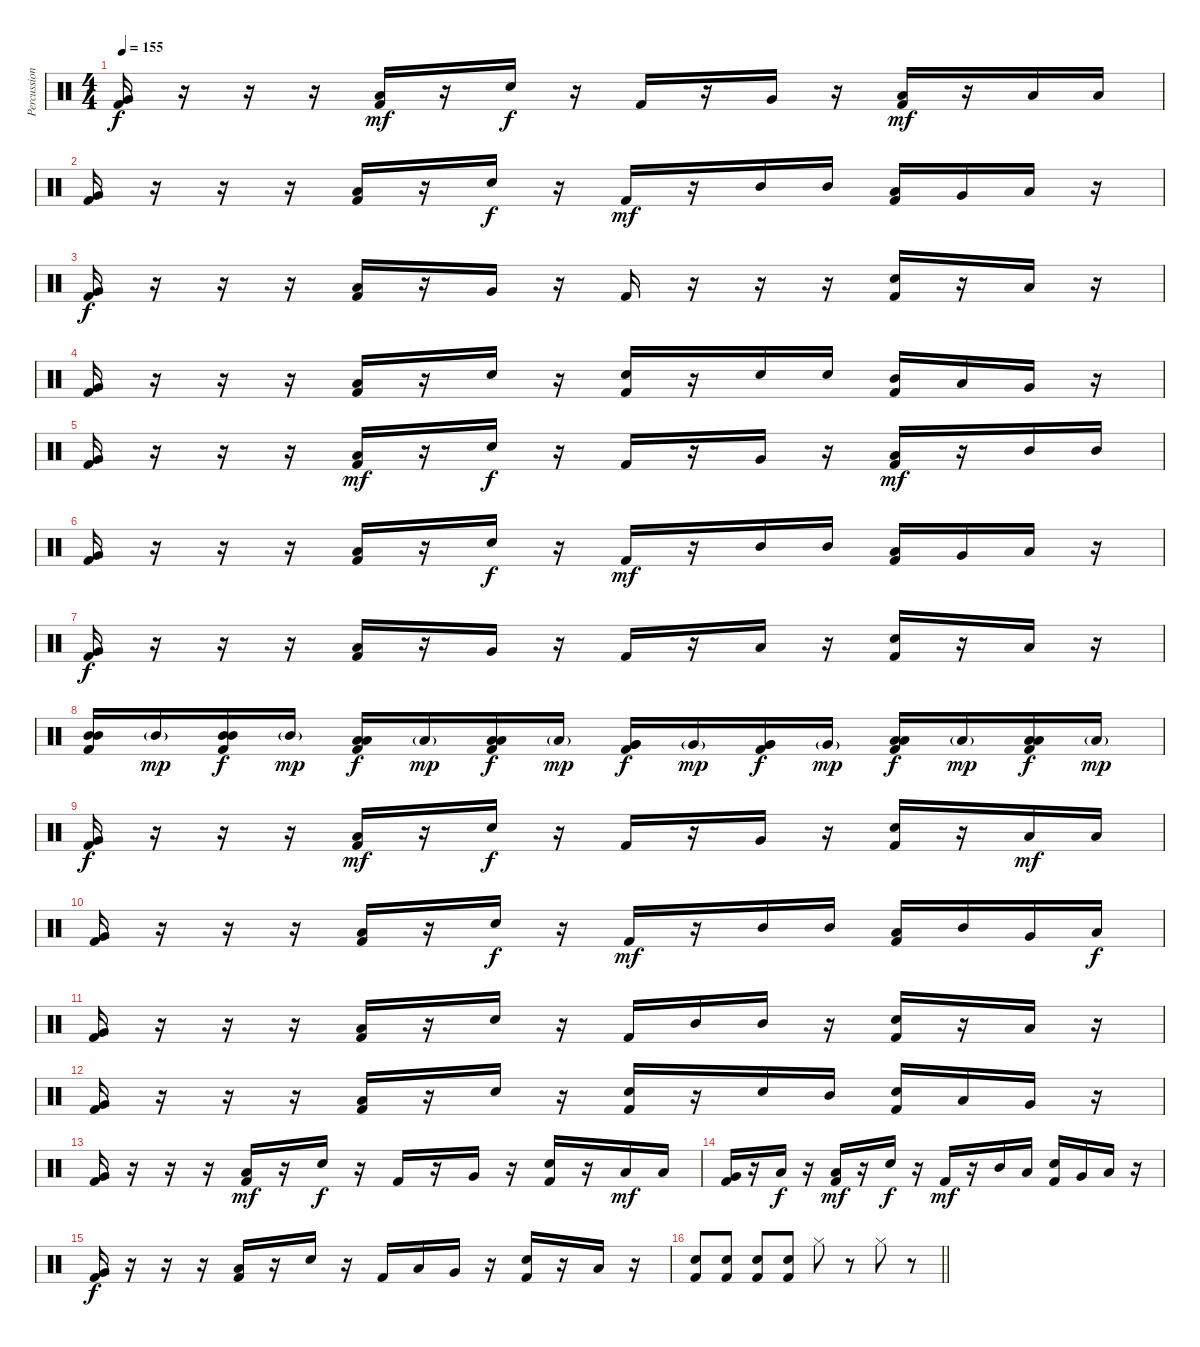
\track ("Percussion (Mike Oliver)" "Percussion") {instrument percussion}
\staff {score}
\articulation defaults
\ts (4 4)
\tempo 155
\clef neutral
\ks c
("Very Low Tom (hit)" "Kick (hit) 2").16{dy f} r.16 r.16 r.16 ("Low Tom (hit)" "Kick (hit) 2").16{dy mf} r.16 "Snare (hit) 2".16{dy f} r.16 "Kick (hit) 2".16 r.16 "Very Low Tom (hit)".16 r.16 ("Low Tom (hit)" "Kick (hit) 2").16{dy mf} r.16 "Low Tom (hit)".16 "Low Tom (hit)".16 |
("Very Low Tom (hit)" "Kick (hit) 2").16 r.16 r.16 r.16 ("Low Tom (hit)" "Kick (hit) 2").16 r.16 "Snare (hit) 2".16{dy f} r.16 "Kick (hit) 2".16{dy mf} r.16 "Mid Tom (hit)".16 "Mid Tom (hit)".16 ("Low Tom (hit)" "Kick (hit) 2").16 "Very Low Tom (hit)".16 "Low Floor Tom (hit)".16 r.16 |
("Very Low Tom (hit)" "Kick (hit) 2").16{dy f} r.16 r.16 r.16 ("Low Tom (hit)" "Kick (hit) 2").16 r.16 "Very Low Tom (hit)".16 r.16 "Kick (hit) 2".16 r.16 r.16 r.16 ("Snare (hit) 2" "Kick (hit) 2").16 r.16 "Low Floor Tom (hit)".16 r.16 |
("Very Low Tom (hit)" "Kick (hit) 2").16 r.16 r.16 r.16 ("Low Tom (hit)" "Kick (hit) 2").16 r.16 "Snare (hit) 2".16 r.16 ("Snare (hit) 2" "Kick (hit) 2").16 r.16 "Snare (hit) 2".16 "Snare (hit) 2".16 ("Mid Tom (hit)" "Kick (hit) 2").16 "Low Tom (hit)".16 "Very Low Tom (hit)".16 r.16 |
("Very Low Tom (hit)" "Kick (hit) 2").16 r.16 r.16 r.16 ("Low Tom (hit)" "Kick (hit) 2").16{dy mf} r.16 "Snare (hit) 2".16{dy f} r.16 "Kick (hit) 2".16 r.16 "Very Low Tom (hit)".16 r.16 ("Low Tom (hit)" "Kick (hit) 2").16{dy mf} r.16 "Mid Tom (hit)".16 "Mid Tom (hit)".16 |
("Very Low Tom (hit)" "Kick (hit) 2").16 r.16 r.16 r.16 ("Low Tom (hit)" "Kick (hit) 2").16 r.16 "Snare (hit) 2".16{dy f} r.16 "Kick (hit) 2".16{dy mf} r.16 "Mid Tom (hit)".16 "Mid Tom (hit)".16 ("Low Tom (hit)" "Kick (hit) 2").16 "Very Low Tom (hit)".16 "Low Floor Tom (hit)".16 r.16 |
("Very Low Tom (hit)" "Kick (hit) 2").16{dy f} r.16 r.16 r.16 ("Low Tom (hit)" "Kick (hit) 2").16 r.16 "Very Low Tom (hit)".16 r.16 "Kick (hit) 2".16 r.16 "Low Tom (hit)".16 r.16 ("Snare (hit) 2" "Kick (hit) 2").16 r.16 "Low Floor Tom (hit)".16 r.16 |
("Mid Tom (hit)" "Mid Tom (hit)" "Kick (hit) 2").16 "Mid Tom (hit)"{g}.16{dy mp} ("Mid Tom (hit)" "Mid Tom (hit)" "Kick (hit) 2").16{dy f} "Mid Tom (hit)"{g}.16{dy mp} ("Low Tom (hit)" "Low Tom (hit)" "Kick (hit) 2").16{dy f} "Low Tom (hit)"{g}.16{dy mp} ("Low Tom (hit)" "Low Tom (hit)" "Kick (hit) 2").16{dy f} "Low Tom (hit)"{g}.16{dy mp} ("Very Low Tom (hit)" "Very Low Tom (hit)" "Kick (hit) 2").16{dy f} "Very Low Tom (hit)"{g}.16{dy mp} ("Very Low Tom (hit)" "Very Low Tom (hit)" "Kick (hit) 2").16{dy f} "Very Low Tom (hit)"{g}.16{dy mp} ("Low Floor Tom (hit)" "Low Floor Tom (hit)" "Kick (hit) 2").16{dy f} "Low Floor Tom (hit)"{g}.16{dy mp} ("Low Floor Tom (hit)" "Low Floor Tom (hit)" "Kick (hit) 2").16{dy f} "Low Floor Tom (hit)"{g}.16{dy mp} |
("Very Low Tom (hit)" "Kick (hit) 2").16{dy f} r.16 r.16 r.16 ("Low Tom (hit)" "Kick (hit) 2").16{dy mf} r.16 "Snare (hit) 2".16{dy f} r.16 "Kick (hit) 2".16 r.16 "Very Low Tom (hit)".16 r.16 ("Snare (hit) 2" "Kick (hit) 2").16 r.16 "Low Tom (hit)".16{dy mf} "Low Tom (hit)".16 |
("Very Low Tom (hit)" "Kick (hit) 2").16 r.16 r.16 r.16 ("Low Tom (hit)" "Kick (hit) 2").16 r.16 "Snare (hit) 2".16{dy f} r.16 "Kick (hit) 2".16{dy mf} r.16 "Mid Tom (hit)".16 "Mid Tom (hit)".16 ("Low Tom (hit)" "Kick (hit) 2").16 "Mid Tom (hit)".16 "Very Low Tom (hit)".16 "Low Floor Tom (hit)".16{dy f} |
("Very Low Tom (hit)" "Kick (hit) 2").16 r.16 r.16 r.16 ("Low Tom (hit)" "Kick (hit) 2").16 r.16 "Snare (hit) 2".16 r.16 "Kick (hit) 2".16 "Mid Tom (hit)".16 "Mid Tom (hit)".16 r.16 ("Snare (hit) 2" "Kick (hit) 2").16 r.16 "Low Floor Tom (hit)".16 r.16 |
("Very Low Tom (hit)" "Kick (hit) 2").16 r.16 r.16 r.16 ("Low Tom (hit)" "Kick (hit) 2").16 r.16 "Snare (hit) 2".16 r.16 ("Snare (hit) 2" "Kick (hit) 2").16 r.16 "Snare (hit) 2".16 "Mid Tom (hit)".16 ("Snare (hit) 2" "Kick (hit) 2").16 "Low Tom (hit)".16 "Very Low Tom (hit)".16 r.16 |
("Very Low Tom (hit)" "Kick (hit) 2").16 r.16 r.16 r.16 ("Low Tom (hit)" "Kick (hit) 2").16{dy mf} r.16 "Snare (hit) 2".16{dy f} r.16 "Kick (hit) 2".16 r.16 "Very Low Tom (hit)".16 r.16 ("Snare (hit) 2" "Kick (hit) 2").16 r.16 "Low Tom (hit)".16{dy mf} "Low Tom (hit)".16 |
("Very Low Tom (hit)" "Kick (hit) 2").16 r.16 "Low Floor Tom (hit)".16{dy f} r.16 ("Low Tom (hit)" "Kick (hit) 2").16{dy mf} r.16 "Snare (hit) 2".16{dy f} r.16 "Kick (hit) 2".16{dy mf} r.16 "Mid Tom (hit)".16 "Low Tom (hit)".16 ("Snare (hit) 2" "Kick (hit) 2").16 "Very Low Tom (hit)".16 "Low Floor Tom (hit)".16 r.16 |
("Very Low Tom (hit)" "Kick (hit) 2").16{dy f} r.16 r.16 r.16 ("Low Tom (hit)" "Kick (hit) 2").16 r.16 "Snare (hit) 2".16 r.16 "Kick (hit) 2".16 "Low Tom (hit)".16 "Very Low Tom (hit)".16 r.16 ("Snare (hit) 2" "Kick (hit) 2").16 r.16 "Low Floor Tom (hit)".16 r.16 |
\barLineRight lightlight
("Snare (hit) 2" "Kick (hit) 2").8 ("Snare (hit) 2" "Kick (hit) 2").8 ("Snare (hit) 2" "Kick (hit) 2").8 ("Snare (hit) 2" "Kick (hit) 2").8 "Hi-Hat (closed)".8 r.8 "Hi-Hat (closed)".8 r.8
